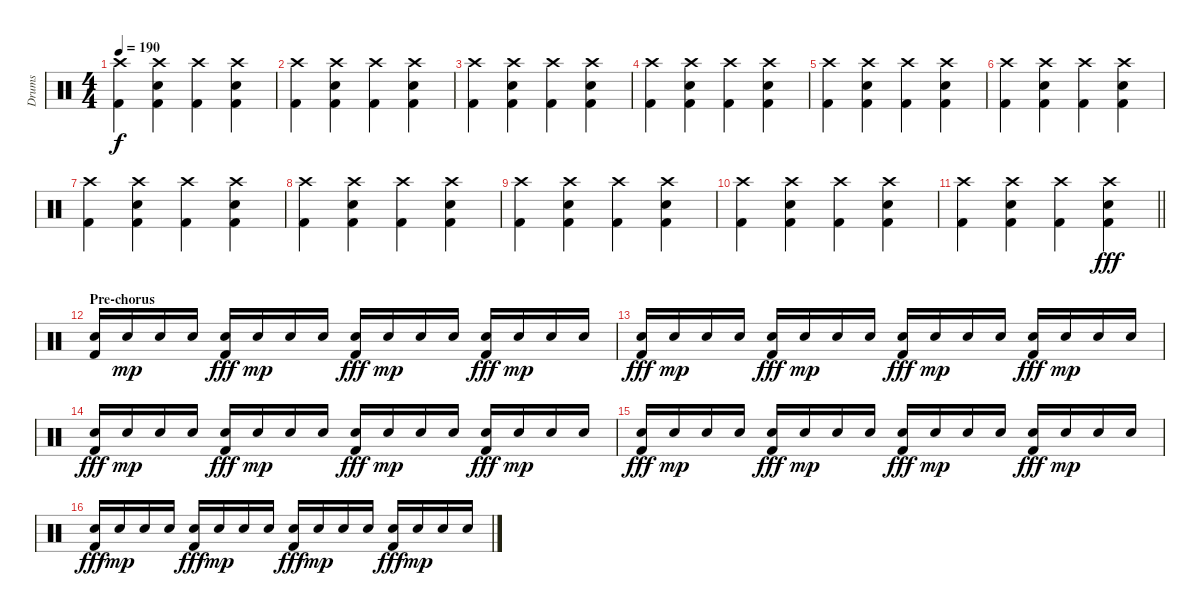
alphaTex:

\track ("Drums" "Drums") {instrument percussion}
\staff {score}
\articulation defaults
\ts (4 4)
\tempo 190
\clef neutral
\ks c
("Crash high (hit)" "Kick (hit) 2").4{dy f} ("Crash high (hit)" "Snare (hit) 2" "Kick (hit) 2").4 ("Crash high (hit)" "Kick (hit) 2").4 ("Crash high (hit)" "Snare (hit) 2" "Kick (hit) 2").4 |
("Crash high (hit)" "Kick (hit) 2").4 ("Crash high (hit)" "Snare (hit) 2" "Kick (hit) 2").4 ("Crash high (hit)" "Kick (hit) 2").4 ("Crash high (hit)" "Snare (hit) 2" "Kick (hit) 2").4 |
("Crash high (hit)" "Kick (hit) 2").4 ("Crash high (hit)" "Snare (hit) 2" "Kick (hit) 2").4 ("Crash high (hit)" "Kick (hit) 2").4 ("Crash high (hit)" "Snare (hit) 2" "Kick (hit) 2").4 |
("Crash high (hit)" "Kick (hit) 2").4 ("Crash high (hit)" "Snare (hit) 2" "Kick (hit) 2").4 ("Crash high (hit)" "Kick (hit) 2").4 ("Crash high (hit)" "Snare (hit) 2" "Kick (hit) 2").4 |
("Crash high (hit)" "Kick (hit) 2").4 ("Crash high (hit)" "Snare (hit) 2" "Kick (hit) 2").4 ("Crash high (hit)" "Kick (hit) 2").4 ("Crash high (hit)" "Snare (hit) 2" "Kick (hit) 2").4 |
("Crash high (hit)" "Kick (hit) 2").4 ("Crash high (hit)" "Snare (hit) 2" "Kick (hit) 2").4 ("Crash high (hit)" "Kick (hit) 2").4 ("Crash high (hit)" "Snare (hit) 2" "Kick (hit) 2").4 |
("Crash high (hit)" "Kick (hit) 2").4 ("Crash high (hit)" "Snare (hit) 2" "Kick (hit) 2").4 ("Crash high (hit)" "Kick (hit) 2").4 ("Crash high (hit)" "Snare (hit) 2" "Kick (hit) 2").4 |
("Crash high (hit)" "Kick (hit) 2").4 ("Crash high (hit)" "Snare (hit) 2" "Kick (hit) 2").4 ("Crash high (hit)" "Kick (hit) 2").4 ("Crash high (hit)" "Snare (hit) 2" "Kick (hit) 2").4 |
("Crash high (hit)" "Kick (hit) 2").4 ("Crash high (hit)" "Snare (hit) 2" "Kick (hit) 2").4 ("Crash high (hit)" "Kick (hit) 2").4 ("Crash high (hit)" "Snare (hit) 2" "Kick (hit) 2").4 |
("Crash high (hit)" "Kick (hit) 2").4 ("Crash high (hit)" "Snare (hit) 2" "Kick (hit) 2").4 ("Crash high (hit)" "Kick (hit) 2").4 ("Crash high (hit)" "Snare (hit) 2" "Kick (hit) 2").4 |
\barLineRight lightlight
("Crash high (hit)" "Kick (hit) 2").4 ("Crash high (hit)" "Snare (hit) 2" "Kick (hit) 2").4 ("Crash high (hit)" "Kick (hit) 2").4 ("Crash high (hit)" "Snare (hit) 2" "Kick (hit) 2").4{dy fff} |
\section ("" "Pre-chorus")
("Snare (hit) 2" "Kick (hit) 2").16 "Snare (hit) 2".16{dy mp} "Snare (hit) 2".16 "Snare (hit) 2".16 ("Snare (hit) 2" "Kick (hit) 2").16{dy fff} "Snare (hit) 2".16{dy mp} "Snare (hit) 2".16 "Snare (hit) 2".16 ("Snare (hit) 2" "Kick (hit) 2").16{dy fff} "Snare (hit) 2".16{dy mp} "Snare (hit) 2".16 "Snare (hit) 2".16 ("Snare (hit) 2" "Kick (hit) 2").16{dy fff} "Snare (hit) 2".16{dy mp} "Snare (hit) 2".16 "Snare (hit) 2".16 |
("Snare (hit) 2" "Kick (hit) 2").16{dy fff} "Snare (hit) 2".16{dy mp} "Snare (hit) 2".16 "Snare (hit) 2".16 ("Snare (hit) 2" "Kick (hit) 2").16{dy fff} "Snare (hit) 2".16{dy mp} "Snare (hit) 2".16 "Snare (hit) 2".16 ("Snare (hit) 2" "Kick (hit) 2").16{dy fff} "Snare (hit) 2".16{dy mp} "Snare (hit) 2".16 "Snare (hit) 2".16 ("Snare (hit) 2" "Kick (hit) 2").16{dy fff} "Snare (hit) 2".16{dy mp} "Snare (hit) 2".16 "Snare (hit) 2".16 |
("Snare (hit) 2" "Kick (hit) 2").16{dy fff} "Snare (hit) 2".16{dy mp} "Snare (hit) 2".16 "Snare (hit) 2".16 ("Snare (hit) 2" "Kick (hit) 2").16{dy fff} "Snare (hit) 2".16{dy mp} "Snare (hit) 2".16 "Snare (hit) 2".16 ("Snare (hit) 2" "Kick (hit) 2").16{dy fff} "Snare (hit) 2".16{dy mp} "Snare (hit) 2".16 "Snare (hit) 2".16 ("Snare (hit) 2" "Kick (hit) 2").16{dy fff} "Snare (hit) 2".16{dy mp} "Snare (hit) 2".16 "Snare (hit) 2".16 |
("Snare (hit) 2" "Kick (hit) 2").16{dy fff} "Snare (hit) 2".16{dy mp} "Snare (hit) 2".16 "Snare (hit) 2".16 ("Snare (hit) 2" "Kick (hit) 2").16{dy fff} "Snare (hit) 2".16{dy mp} "Snare (hit) 2".16 "Snare (hit) 2".16 ("Snare (hit) 2" "Kick (hit) 2").16{dy fff} "Snare (hit) 2".16{dy mp} "Snare (hit) 2".16 "Snare (hit) 2".16 ("Snare (hit) 2" "Kick (hit) 2").16{dy fff} "Snare (hit) 2".16{dy mp} "Snare (hit) 2".16 "Snare (hit) 2".16 |
("Snare (hit) 2" "Kick (hit) 2").16{dy fff} "Snare (hit) 2".16{dy mp} "Snare (hit) 2".16 "Snare (hit) 2".16 ("Snare (hit) 2" "Kick (hit) 2").16{dy fff} "Snare (hit) 2".16{dy mp} "Snare (hit) 2".16 "Snare (hit) 2".16 ("Snare (hit) 2" "Kick (hit) 2").16{dy fff} "Snare (hit) 2".16{dy mp} "Snare (hit) 2".16 "Snare (hit) 2".16 ("Snare (hit) 2" "Kick (hit) 2").16{dy fff} "Snare (hit) 2".16{dy mp} "Snare (hit) 2".16 "Snare (hit) 2".16
